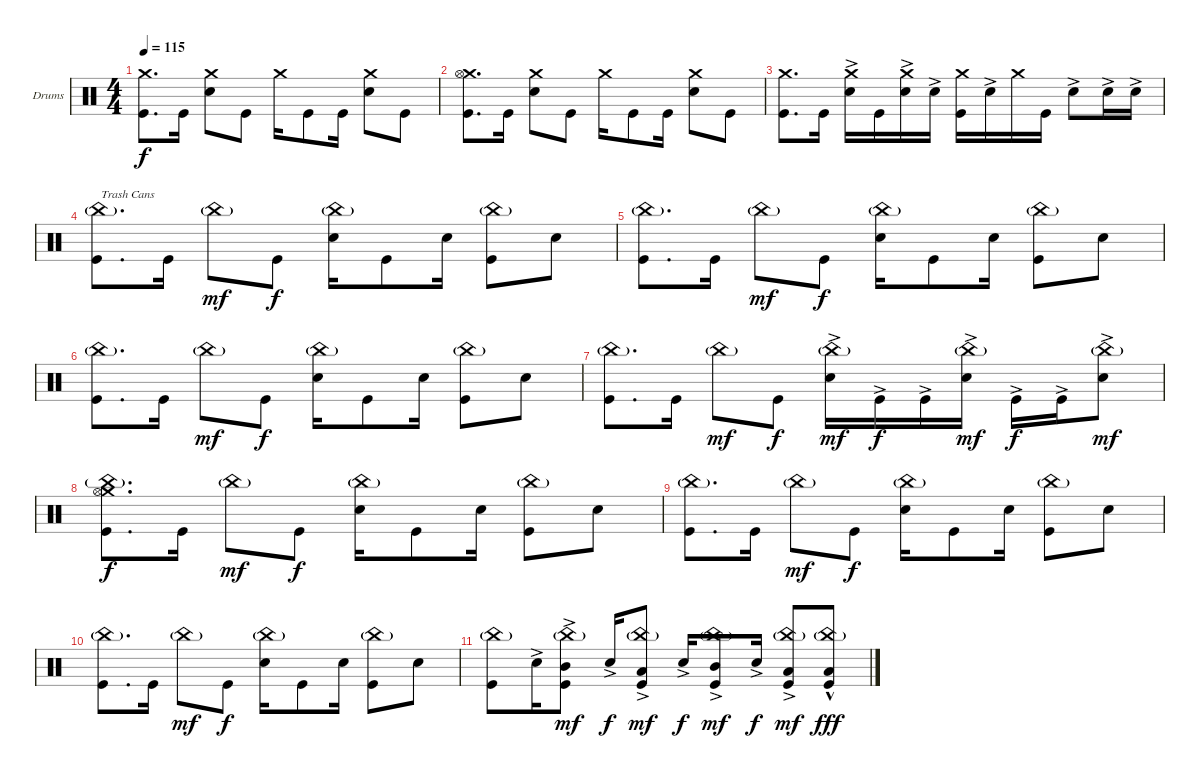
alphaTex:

\bracketExtendMode groupsimilarinstruments
\firstSystemTrackNameOrientation horizontal
\otherSystemsTrackNameOrientation horizontal
\track ("Drumkit" "Drums") {instrument percussion}
\staff {score}
\articulation defaults
\ts (4 4)
\tempo 115
\clef neutral
\ks c
("Crash medium (hit)" "Kick (hit)").8{d dy f} "Kick (hit)".16 ("Crash medium (hit)" "Snare (hit) 2").8 "Kick (hit)".8 "Crash medium (hit)".16 "Kick (hit)".8 "Kick (hit)".16 ("Crash medium (hit)" "Snare (hit) 2").8 "Kick (hit)".8 |
("Crash medium (hit)" "Hi-Hat (open)" "Kick (hit)").8{d} "Kick (hit)".16 ("Crash medium (hit)" "Snare (hit) 2").8 "Kick (hit)".8 "Crash medium (hit)".16 "Kick (hit)".8 "Kick (hit)".16 ("Crash medium (hit)" "Snare (hit) 2").8 "Kick (hit)".8 |
("Crash medium (hit)" "Kick (hit)").8{d} "Kick (hit)".16 ("Crash medium (hit)" "Snare (hit) 2"{ac}).16 "Kick (hit)".16 ("Crash medium (hit)" "Snare (hit) 2"{ac}).16 "Snare (hit) 2"{ac}.16 ("Crash medium (hit)" "Kick (hit)").16 "Snare (hit) 2"{ac}.16 "Crash medium (hit)".16 "Kick (hit)".16 "Snare (hit) 2"{ac}.8 "Snare (hit) 2"{ac}.16 "Snare (hit) 2"{ac}.16 |
("China (hit)"{g} "Kick (hit)").8{d txt "Trash Cans"} "Kick (hit)".16 "China (hit)"{g}.8{dy mf} "Kick (hit)".8{dy f} ("China (hit)"{g} "Snare (hit) 2").16 "Kick (hit)".8 "Snare (hit) 2".16 ("China (hit)"{g} "Kick (hit)").8 "Snare (hit) 2".8 |
("China (hit)"{g} "Kick (hit)").8{d} "Kick (hit)".16 "China (hit)"{g}.8{dy mf} "Kick (hit)".8{dy f} ("China (hit)"{g} "Snare (hit) 2").16 "Kick (hit)".8 "Snare (hit) 2".16 ("China (hit)"{g} "Kick (hit)").8 "Snare (hit) 2".8 |
("China (hit)"{g} "Kick (hit)").8{d} "Kick (hit)".16 "China (hit)"{g}.8{dy mf} "Kick (hit)".8{dy f} ("China (hit)"{g} "Snare (hit) 2").16 "Kick (hit)".8 "Snare (hit) 2".16 ("China (hit)"{g} "Kick (hit)").8 "Snare (hit) 2".8 |
("China (hit)"{g} "Kick (hit)").8{d} "Kick (hit)".16 "China (hit)"{g}.8{dy mf} "Kick (hit)".8{dy f} ("China (hit)"{g} "Snare (hit) 2"{ac}).16{dy mf} "Kick (hit)"{ac}.16{dy f} "Kick (hit)"{ac}.16 ("China (hit)"{g} "Snare (hit) 2"{ac}).16{dy mf} "Kick (hit)"{ac}.16{dy f} "Kick (hit)"{ac}.16 ("China (hit)"{g} "Snare (hit) 2"{ac}).8{dy mf} |
("Crash medium (hit)" "China (hit)"{g} "Hi-Hat (open)" "Kick (hit)").8{d dy f} "Kick (hit)".16 "China (hit)"{g}.8{dy mf} "Kick (hit)".8{dy f} ("China (hit)"{g} "Snare (hit) 2").16 "Kick (hit)".8 "Snare (hit) 2".16 ("China (hit)"{g} "Kick (hit)").8 "Snare (hit) 2".8 |
("China (hit)"{g} "Kick (hit)").8{d} "Kick (hit)".16 "China (hit)"{g}.8{dy mf} "Kick (hit)".8{dy f} ("China (hit)"{g} "Snare (hit) 2").16 "Kick (hit)".8 "Snare (hit) 2".16 ("China (hit)"{g} "Kick (hit)").8 "Snare (hit) 2".8 |
("China (hit)"{g} "Kick (hit)").8{d} "Kick (hit)".16 "China (hit)"{g}.8{dy mf} "Kick (hit)".8{dy f} ("China (hit)"{g} "Snare (hit) 2").16 "Kick (hit)".8 "Snare (hit) 2".16 ("China (hit)"{g} "Kick (hit)").8 "Snare (hit) 2".8 |
("China (hit)"{g} "Kick (hit)").8 "Snare (hit) 2"{ac}.16 ("China (hit)"{g} "Mid Tom (hit)"{ac} "Kick (hit)"{ac}).8{dy mf} "Snare (hit) 2"{ac}.16{dy f} ("China (hit)"{g} "Low Tom (hit)"{ac} "Kick (hit)"{ac}).8{dy mf} "Snare (hit) 2"{ac}.16{dy f} ("China (hit)"{g} "Mid Tom (hit)"{ac} "Kick (hit)"{ac}).8{dy mf} "Snare (hit) 2"{ac}.16{dy f} ("China (hit)"{g} "Low Tom (hit)"{ac} "Kick (hit)"{ac}).8{dy mf} ("China (hit)"{g} "Low Tom (hit)"{hac} "Kick (hit)"{hac}).8{dy fff}
